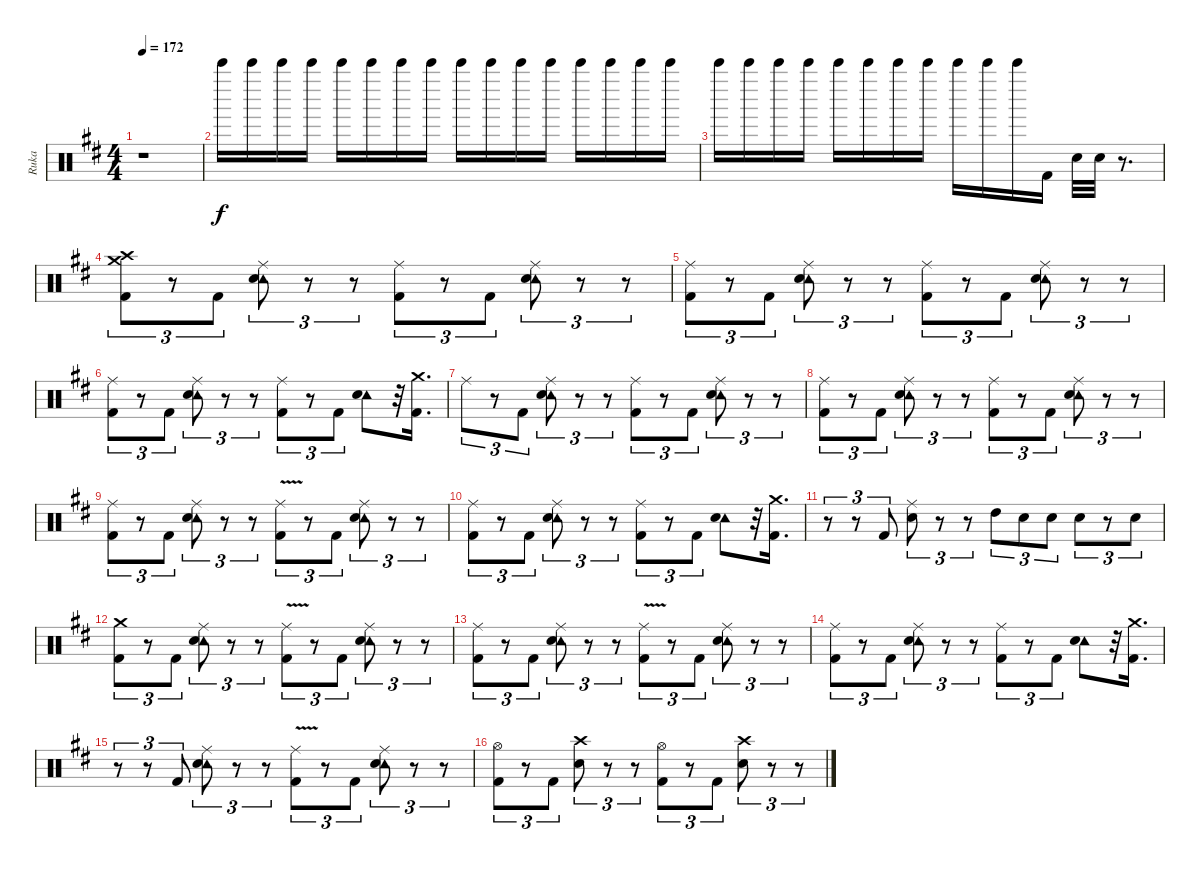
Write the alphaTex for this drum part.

\track ("Ruka" "Ruka") {instrument percussion}
\staff {score}
\articulation defaults
\ts (4 4)
\tempo 172
\clef neutral
\ks bminor
r.1{dy f} |
"Bell Tree (hit)".16 "Bell Tree (hit)".16 "Bell Tree (hit)".16 "Bell Tree (hit)".16 "Bell Tree (hit)".16 "Bell Tree (hit)".16 "Bell Tree (hit)".16 "Bell Tree (hit)".16 "Bell Tree (hit)".16 "Bell Tree (hit)".16 "Bell Tree (hit)".16 "Bell Tree (hit)".16 "Bell Tree (hit)".16 "Bell Tree (hit)".16 "Bell Tree (hit)".16 "Bell Tree (hit)".16 |
"Bell Tree (hit)".16 "Bell Tree (hit)".16 "Bell Tree (hit)".16 "Bell Tree (hit)".16 "Bell Tree (hit)".16 "Bell Tree (hit)".16 "Bell Tree (hit)".16 "Bell Tree (hit)".16 "Bell Tree (hit)".16 "Bell Tree (hit)".16 "Bell Tree (hit)".16 "Kick (hit) 2".16 "Electric Snare (hit)".32 "Electric Snare (hit)".32 r.8{d} |
("Crash medium (hit)" "Crash high (hit)" "Kick (hit) 2").8{tu (3 2)} r.8{tu (3 2)} "Kick (hit) 2".8{tu (3 2)} ("Tambourine (hit)" "Ride (middle)" "Electric Snare (hit)").8{tu (3 2)} r.8{tu (3 2)} r.8{tu (3 2)} ("Ride (middle)" "Kick (hit) 2").8{tu (3 2)} r.8{tu (3 2)} "Kick (hit) 2".8{tu (3 2)} ("Tambourine (hit)" "Ride (middle)" "Electric Snare (hit)").8{tu (3 2)} r.8{tu (3 2)} r.8{tu (3 2)} |
("Ride (middle)" "Kick (hit) 2").8{tu (3 2)} r.8{tu (3 2)} "Kick (hit) 2".8{tu (3 2)} ("Tambourine (hit)" "Ride (middle)" "Electric Snare (hit)").8{tu (3 2)} r.8{tu (3 2)} r.8{tu (3 2)} ("Ride (middle)" "Kick (hit) 2").8{tu (3 2)} r.8{tu (3 2)} "Kick (hit) 2".8{tu (3 2)} ("Tambourine (hit)" "Ride (middle)" "Electric Snare (hit)").8{tu (3 2)} r.8{tu (3 2)} r.8{tu (3 2)} |
("Ride (middle)" "Kick (hit) 2").8{tu (3 2)} r.8{tu (3 2)} "Kick (hit) 2".8{tu (3 2)} ("Tambourine (hit)" "Ride (middle)" "Electric Snare (hit)").8{tu (3 2)} r.8{tu (3 2)} r.8{tu (3 2)} ("Ride (middle)" "Kick (hit) 2").8{tu (3 2)} r.8{tu (3 2)} "Kick (hit) 2".8{tu (3 2)} ("Tambourine (hit)" "Electric Snare (hit)").8 r.32 ("Crash medium (hit)" "Kick (hit) 2").16{d} |
"Ride (middle)".8{tu (3 2)} r.8{tu (3 2)} "Kick (hit) 2".8{tu (3 2)} ("Tambourine (hit)" "Ride (middle)" "Electric Snare (hit)").8{tu (3 2)} r.8{tu (3 2)} r.8{tu (3 2)} ("Ride (middle)" "Kick (hit) 2").8{tu (3 2)} r.8{tu (3 2)} "Kick (hit) 2".8{tu (3 2)} ("Tambourine (hit)" "Ride (middle)" "Electric Snare (hit)").8{tu (3 2)} r.8{tu (3 2)} r.8{tu (3 2)} |
("Ride (middle)" "Kick (hit) 2").8{tu (3 2)} r.8{tu (3 2)} "Kick (hit) 2".8{tu (3 2)} ("Tambourine (hit)" "Ride (middle)" "Electric Snare (hit)").8{tu (3 2)} r.8{tu (3 2)} r.8{tu (3 2)} ("Ride (middle)" "Kick (hit) 2").8{tu (3 2)} r.8{tu (3 2)} "Kick (hit) 2".8{tu (3 2)} ("Tambourine (hit)" "Ride (middle)" "Electric Snare (hit)").8{tu (3 2)} r.8{tu (3 2)} r.8{tu (3 2)} |
("Ride (middle)" "Kick (hit) 2").8{tu (3 2)} r.8{tu (3 2)} "Kick (hit) 2".8{tu (3 2)} ("Tambourine (hit)" "Ride (middle)" "Electric Snare (hit)").8{tu (3 2)} r.8{tu (3 2)} r.8{tu (3 2)} ("Ride (middle)" "Kick (hit) 2"{v}).8{tu (3 2)} r.8{tu (3 2)} "Kick (hit) 2".8{tu (3 2)} ("Tambourine (hit)" "Ride (middle)" "Electric Snare (hit)").8{tu (3 2)} r.8{tu (3 2)} r.8{tu (3 2)} |
("Ride (middle)" "Kick (hit) 2").8{tu (3 2)} r.8{tu (3 2)} "Kick (hit) 2".8{tu (3 2)} ("Tambourine (hit)" "Ride (middle)" "Electric Snare (hit)").8{tu (3 2)} r.8{tu (3 2)} r.8{tu (3 2)} ("Ride (middle)" "Kick (hit) 2").8{tu (3 2)} r.8{tu (3 2)} "Kick (hit) 2".8{tu (3 2)} ("Tambourine (hit)" "Electric Snare (hit)").8 r.32 ("Crash medium (hit)" "Kick (hit) 2").16{d} |
r.8{tu (3 2)} r.8{tu (3 2)} "Kick (hit) 2".8{tu (3 2)} ("Ride (middle)" "Electric Snare (hit)").8{tu (3 2)} r.8{tu (3 2)} r.8{tu (3 2)} "High Tom (hit)".8{tu (3 2)} "Electric Snare (hit)".8{tu (3 2)} "Electric Snare (hit)".8{tu (3 2)} "Electric Snare (hit)".8{tu (3 2)} r.8{tu (3 2)} "Electric Snare (hit)".8{tu (3 2)} |
("Crash medium (hit)" "Kick (hit) 2").8{tu (3 2)} r.8{tu (3 2)} "Kick (hit) 2".8{tu (3 2)} ("Tambourine (hit)" "Ride (middle)" "Electric Snare (hit)").8{tu (3 2)} r.8{tu (3 2)} r.8{tu (3 2)} ("Ride (middle)" "Kick (hit) 2"{v}).8{tu (3 2)} r.8{tu (3 2)} "Kick (hit) 2".8{tu (3 2)} ("Tambourine (hit)" "Ride (middle)" "Electric Snare (hit)").8{tu (3 2)} r.8{tu (3 2)} r.8{tu (3 2)} |
("Ride (middle)" "Kick (hit) 2").8{tu (3 2)} r.8{tu (3 2)} "Kick (hit) 2".8{tu (3 2)} ("Tambourine (hit)" "Ride (middle)" "Electric Snare (hit)").8{tu (3 2)} r.8{tu (3 2)} r.8{tu (3 2)} ("Ride (middle)" "Kick (hit) 2"{v}).8{tu (3 2)} r.8{tu (3 2)} "Kick (hit) 2".8{tu (3 2)} ("Tambourine (hit)" "Ride (middle)" "Electric Snare (hit)").8{tu (3 2)} r.8{tu (3 2)} r.8{tu (3 2)} |
("Ride (middle)" "Kick (hit) 2").8{tu (3 2)} r.8{tu (3 2)} "Kick (hit) 2".8{tu (3 2)} ("Tambourine (hit)" "Ride (middle)" "Electric Snare (hit)").8{tu (3 2)} r.8{tu (3 2)} r.8{tu (3 2)} ("Ride (middle)" "Kick (hit) 2").8{tu (3 2)} r.8{tu (3 2)} "Kick (hit) 2".8{tu (3 2)} ("Tambourine (hit)" "Electric Snare (hit)").8 r.32 ("Crash medium (hit)" "Kick (hit) 2").16{d} |
r.8{tu (3 2)} r.8{tu (3 2)} "Kick (hit) 2".8{tu (3 2)} ("Tambourine (hit)" "Ride (middle)" "Electric Snare (hit)").8{tu (3 2)} r.8{tu (3 2)} r.8{tu (3 2)} ("Ride (middle)" "Kick (hit) 2"{v}).8{tu (3 2)} r.8{tu (3 2)} "Kick (hit) 2".8{tu (3 2)} ("Tambourine (hit)" "Ride (middle)" "Electric Snare (hit)").8{tu (3 2)} r.8{tu (3 2)} r.8{tu (3 2)} |
("Hi-Hat (open)" "Kick (hit) 2").8{tu (3 2)} r.8{tu (3 2)} "Kick (hit) 2".8{tu (3 2)} ("Crash high (hit)" "Electric Snare (hit)").8{tu (3 2)} r.8{tu (3 2)} r.8{tu (3 2)} ("Hi-Hat (open)" "Kick (hit) 2").8{tu (3 2)} r.8{tu (3 2)} "Kick (hit) 2".8{tu (3 2)} ("Crash high (hit)" "Electric Snare (hit)").8{tu (3 2)} r.8{tu (3 2)} r.8{tu (3 2)}
